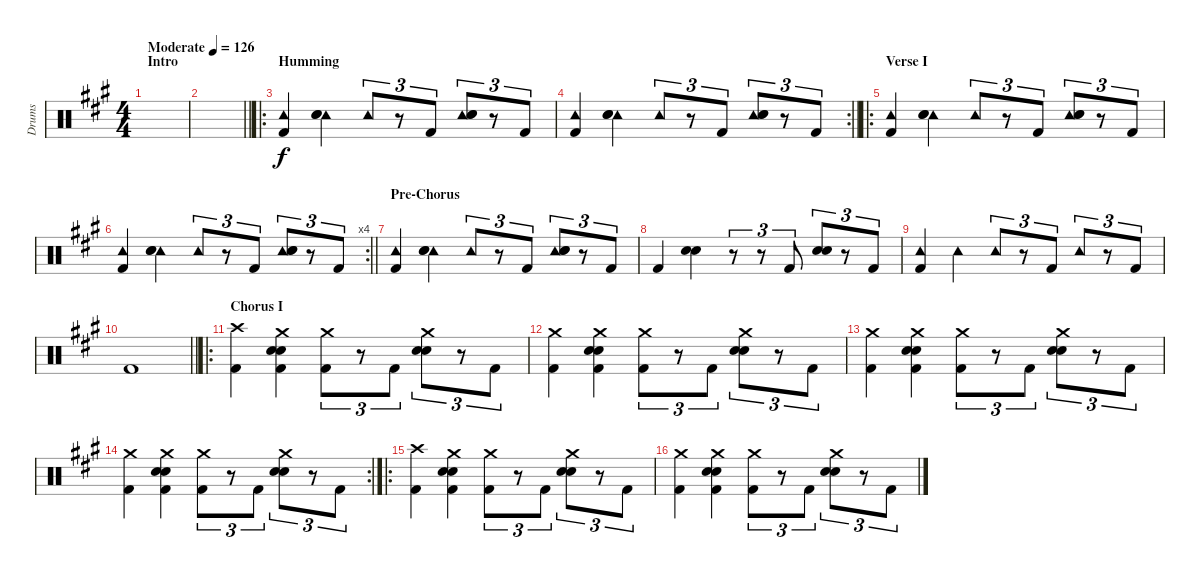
\track ("Drums" "Drums") {instrument percussion}
\staff {score}
\articulation defaults
\ts (4 4)
\section ("" "Intro")
\tempo (126 "Moderate")
\clef neutral
\ks a
|
\barLineRight lightlight
|
\ro
\section ("" "Humming")
("Tambourine (hit)" "Kick (hit) 2").4 ("Tambourine (hit)" "Electric Snare (hit)" "Hand Clap (hit)").4 "Tambourine (hit)".8{tu (3 2)} r.8{tu (3 2)} "Kick (hit) 2".8{tu (3 2)} ("Tambourine (hit)" "Electric Snare (hit)" "Hand Clap (hit)").8{tu (3 2)} r.8{tu (3 2)} "Kick (hit) 2".8{tu (3 2)} |
\rc 2
\barLineRight lightlight
("Tambourine (hit)" "Kick (hit) 2").4 ("Tambourine (hit)" "Electric Snare (hit)" "Hand Clap (hit)").4 "Tambourine (hit)".8{tu (3 2)} r.8{tu (3 2)} "Kick (hit) 2".8{tu (3 2)} ("Tambourine (hit)" "Electric Snare (hit)" "Hand Clap (hit)").8{tu (3 2)} r.8{tu (3 2)} "Kick (hit) 2".8{tu (3 2)} |
\ro
\section ("" "Verse I")
("Tambourine (hit)" "Kick (hit) 2").4 ("Tambourine (hit)" "Electric Snare (hit)" "Hand Clap (hit)").4 "Tambourine (hit)".8{tu (3 2)} r.8{tu (3 2)} "Kick (hit) 2".8{tu (3 2)} ("Tambourine (hit)" "Electric Snare (hit)" "Hand Clap (hit)").8{tu (3 2)} r.8{tu (3 2)} "Kick (hit) 2".8{tu (3 2)} |
\rc 4
\barLineRight lightlight
("Tambourine (hit)" "Kick (hit) 2").4 ("Tambourine (hit)" "Electric Snare (hit)" "Hand Clap (hit)").4 "Tambourine (hit)".8{tu (3 2)} r.8{tu (3 2)} "Kick (hit) 2".8{tu (3 2)} ("Tambourine (hit)" "Electric Snare (hit)" "Hand Clap (hit)").8{tu (3 2)} r.8{tu (3 2)} "Kick (hit) 2".8{tu (3 2)} |
\section ("" "Pre-Chorus")
("Tambourine (hit)" "Kick (hit) 2").4 ("Tambourine (hit)" "Electric Snare (hit)" "Hand Clap (hit)").4 "Tambourine (hit)".8{tu (3 2)} r.8{tu (3 2)} "Kick (hit) 2".8{tu (3 2)} ("Tambourine (hit)" "Electric Snare (hit)" "Hand Clap (hit)").8{tu (3 2)} r.8{tu (3 2)} "Kick (hit) 2".8{tu (3 2)} |
"Kick (hit) 2".4 ("Electric Snare (hit)" "Hand Clap (hit)").4 r.8{tu (3 2)} r.8{tu (3 2)} "Kick (hit) 2".8{tu (3 2)} ("Electric Snare (hit)" "Hand Clap (hit)").8{tu (3 2)} r.8{tu (3 2)} "Kick (hit) 2".8{tu (3 2)} |
("Tambourine (hit)" "Kick (hit) 2").4 "Tambourine (hit)".4 "Tambourine (hit)".8{tu (3 2)} r.8{tu (3 2)} "Kick (hit) 2".8{tu (3 2)} "Tambourine (hit)".8{tu (3 2)} r.8{tu (3 2)} "Kick (hit) 2".8{tu (3 2)} |
\barLineRight lightlight "Kick (hit) 2".1
|
\ro
\section ("" "Chorus I")
("Crash high (hit)" "Kick (hit) 2").4 ("Crash medium (hit)" "Electric Snare (hit)" "Hand Clap (hit)" "Kick (hit) 2").4 ("Crash medium (hit)" "Kick (hit) 2").8{tu (3 2)} r.8{tu (3 2)} "Kick (hit) 2".8{tu (3 2)} ("Crash medium (hit)" "Electric Snare (hit)" "Hand Clap (hit)").8{tu (3 2)} r.8{tu (3 2)} "Kick (hit) 2".8{tu (3 2)} |
("Crash medium (hit)" "Kick (hit) 2").4 ("Crash medium (hit)" "Electric Snare (hit)" "Hand Clap (hit)" "Kick (hit) 2").4 ("Crash medium (hit)" "Kick (hit) 2").8{tu (3 2)} r.8{tu (3 2)} "Kick (hit) 2".8{tu (3 2)} ("Crash medium (hit)" "Electric Snare (hit)" "Hand Clap (hit)").8{tu (3 2)} r.8{tu (3 2)} "Kick (hit) 2".8{tu (3 2)} |
("Crash medium (hit)" "Kick (hit) 2").4 ("Crash medium (hit)" "Electric Snare (hit)" "Hand Clap (hit)" "Kick (hit) 2").4 ("Crash medium (hit)" "Kick (hit) 2").8{tu (3 2)} r.8{tu (3 2)} "Kick (hit) 2".8{tu (3 2)} ("Crash medium (hit)" "Electric Snare (hit)" "Hand Clap (hit)").8{tu (3 2)} r.8{tu (3 2)} "Kick (hit) 2".8{tu (3 2)} |
\rc 2
("Crash medium (hit)" "Kick (hit) 2").4 ("Crash medium (hit)" "Electric Snare (hit)" "Hand Clap (hit)" "Kick (hit) 2").4 ("Crash medium (hit)" "Kick (hit) 2").8{tu (3 2)} r.8{tu (3 2)} "Kick (hit) 2".8{tu (3 2)} ("Crash medium (hit)" "Electric Snare (hit)" "Hand Clap (hit)").8{tu (3 2)} r.8{tu (3 2)} "Kick (hit) 2".8{tu (3 2)} |
\ro
("Crash high (hit)" "Kick (hit) 2").4 ("Crash medium (hit)" "Electric Snare (hit)" "Hand Clap (hit)" "Kick (hit) 2").4 ("Crash medium (hit)" "Kick (hit) 2").8{tu (3 2)} r.8{tu (3 2)} "Kick (hit) 2".8{tu (3 2)} ("Crash medium (hit)" "Electric Snare (hit)" "Hand Clap (hit)").8{tu (3 2)} r.8{tu (3 2)} "Kick (hit) 2".8{tu (3 2)} |
("Crash medium (hit)" "Kick (hit) 2").4 ("Crash medium (hit)" "Electric Snare (hit)" "Hand Clap (hit)" "Kick (hit) 2").4 ("Crash medium (hit)" "Kick (hit) 2").8{tu (3 2)} r.8{tu (3 2)} "Kick (hit) 2".8{tu (3 2)} ("Crash medium (hit)" "Electric Snare (hit)" "Hand Clap (hit)").8{tu (3 2)} r.8{tu (3 2)} "Kick (hit) 2".8{tu (3 2)}
